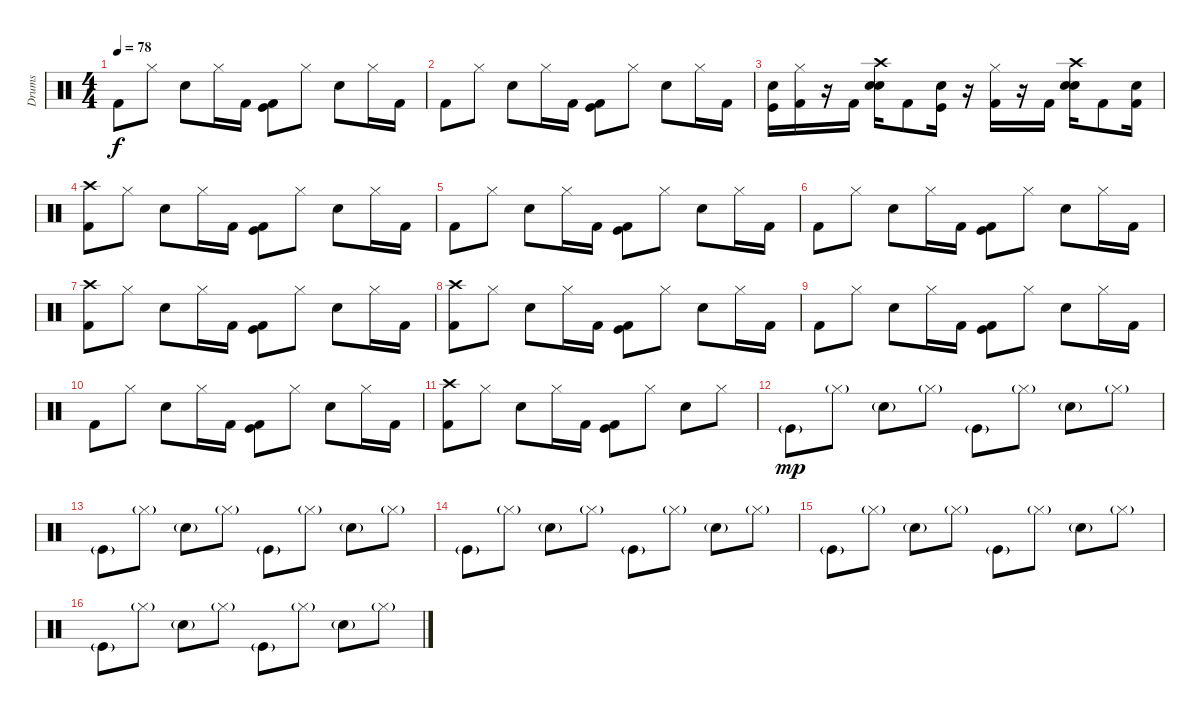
\track ("Drums" "Drums") {instrument percussion}
\staff {score}
\articulation defaults
\ts (4 4)
\tempo 78
\clef neutral
\ks c "Kick (hit) 2".8{dy f} "Hi-Hat (closed)".8 "Snare (hit) 2".8 "Hi-Hat (closed)".16 "Kick (hit) 2".16
("Kick (hit) 2" "Kick (hit)").8 "Hi-Hat (closed)".8 "Snare (hit) 2".8 "Hi-Hat (closed)".16 "Kick (hit) 2".16 |
"Kick (hit) 2".8 "Hi-Hat (closed)".8 "Snare (hit) 2".8 "Hi-Hat (closed)".16 "Kick (hit) 2".16 ("Kick (hit) 2" "Kick (hit)").8 "Hi-Hat (closed)".8 "Snare (hit) 2".8 "Hi-Hat (closed)".16 "Kick (hit) 2".16 |
("Electric Snare (hit)" "Kick (hit)").16 ("Hi-Hat (closed)" "Kick (hit) 2").16 r.16 "Kick (hit) 2".16 ("Snare (hit) 2" "Crash high (hit)" "Snare (hit) 2").16 "Kick (hit) 2".8 ("Electric Snare (hit)" "Kick (hit)").16 r.16 ("Hi-Hat (closed)" "Kick (hit) 2").16 r.16 "Kick (hit) 2".16 ("Snare (hit) 2" "Crash high (hit)" "Snare (hit) 2").16 "Kick (hit) 2".8 ("Kick (hit) 2" "Snare (hit) 2").16 |
("Kick (hit) 2" "Crash high (hit)").8 "Hi-Hat (closed)".8 "Snare (hit) 2".8 "Hi-Hat (closed)".16 "Kick (hit) 2".16 ("Kick (hit) 2" "Kick (hit)").8 "Hi-Hat (closed)".8 "Snare (hit) 2".8 "Hi-Hat (closed)".16 "Kick (hit) 2".16 |
"Kick (hit) 2".8 "Hi-Hat (closed)".8 "Snare (hit) 2".8 "Hi-Hat (closed)".16 "Kick (hit) 2".16 ("Kick (hit) 2" "Kick (hit)").8 "Hi-Hat (closed)".8 "Snare (hit) 2".8 "Hi-Hat (closed)".16 "Kick (hit) 2".16 |
"Kick (hit) 2".8 "Hi-Hat (closed)".8 "Snare (hit) 2".8 "Hi-Hat (closed)".16 "Kick (hit) 2".16 ("Kick (hit) 2" "Kick (hit)").8 "Hi-Hat (closed)".8 "Snare (hit) 2".8 "Hi-Hat (closed)".16 "Kick (hit) 2".16 |
("Kick (hit) 2" "Crash high (hit)").8 "Hi-Hat (closed)".8 "Snare (hit) 2".8 "Hi-Hat (closed)".16 "Kick (hit) 2".16 ("Kick (hit) 2" "Kick (hit)").8 "Hi-Hat (closed)".8 "Snare (hit) 2".8 "Hi-Hat (closed)".16 "Kick (hit) 2".16 |
("Kick (hit) 2" "Crash high (hit)").8 "Hi-Hat (closed)".8 "Snare (hit) 2".8 "Hi-Hat (closed)".16 "Kick (hit) 2".16 ("Kick (hit) 2" "Kick (hit)").8 "Hi-Hat (closed)".8 "Snare (hit) 2".8 "Hi-Hat (closed)".16 "Kick (hit) 2".16 |
"Kick (hit) 2".8 "Hi-Hat (closed)".8 "Snare (hit) 2".8 "Hi-Hat (closed)".16 "Kick (hit) 2".16 ("Kick (hit) 2" "Kick (hit)").8 "Hi-Hat (closed)".8 "Snare (hit) 2".8 "Hi-Hat (closed)".16 "Kick (hit) 2".16 |
"Kick (hit) 2".8 "Hi-Hat (closed)".8 "Snare (hit) 2".8 "Hi-Hat (closed)".16 "Kick (hit) 2".16 ("Kick (hit) 2" "Kick (hit)").8 "Hi-Hat (closed)".8 "Snare (hit) 2".8 "Hi-Hat (closed)".16 "Kick (hit) 2".16 |
("Kick (hit) 2" "Crash high (hit)").8 "Hi-Hat (closed)".8 "Snare (hit) 2".8 "Hi-Hat (closed)".16 "Kick (hit) 2".16 ("Kick (hit) 2" "Kick (hit)").8 "Hi-Hat (closed)".8 "Snare (hit) 2".8 "Hi-Hat (closed)".8 |
"Kick (hit)"{g}.8{dy mp} "Hi-Hat (closed)"{g}.8 "Electric Snare (hit)"{g}.8 "Hi-Hat (closed)"{g}.8 "Kick (hit)"{g}.8 "Hi-Hat (closed)"{g}.8 "Electric Snare (hit)"{g}.8 "Hi-Hat (closed)"{g}.8 |
"Kick (hit)"{g}.8 "Hi-Hat (closed)"{g}.8 "Electric Snare (hit)"{g}.8 "Hi-Hat (closed)"{g}.8 "Kick (hit)"{g}.8 "Hi-Hat (closed)"{g}.8 "Electric Snare (hit)"{g}.8 "Hi-Hat (closed)"{g}.8 |
"Kick (hit)"{g}.8 "Hi-Hat (closed)"{g}.8 "Electric Snare (hit)"{g}.8 "Hi-Hat (closed)"{g}.8 "Kick (hit)"{g}.8 "Hi-Hat (closed)"{g}.8 "Electric Snare (hit)"{g}.8 "Hi-Hat (closed)"{g}.8 |
"Kick (hit)"{g}.8 "Hi-Hat (closed)"{g}.8 "Electric Snare (hit)"{g}.8 "Hi-Hat (closed)"{g}.8 "Kick (hit)"{g}.8 "Hi-Hat (closed)"{g}.8 "Electric Snare (hit)"{g}.8 "Hi-Hat (closed)"{g}.8 |
"Kick (hit)"{g}.8 "Hi-Hat (closed)"{g}.8 "Electric Snare (hit)"{g}.8 "Hi-Hat (closed)"{g}.8 "Kick (hit)"{g}.8 "Hi-Hat (closed)"{g}.8 "Electric Snare (hit)"{g}.8 "Hi-Hat (closed)"{g}.8
